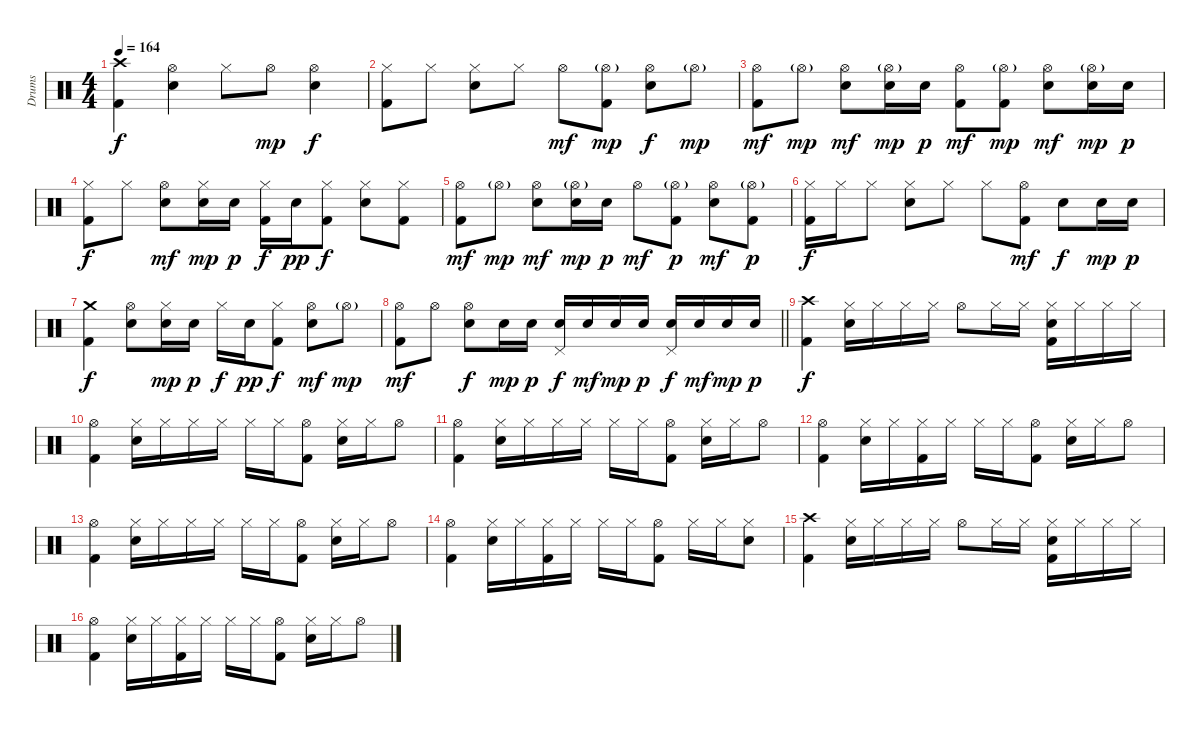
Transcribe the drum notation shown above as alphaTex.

\track ("Drums" "Drums") {instrument percussion}
\staff {score}
\articulation defaults
\ts (4 4)
\tempo 164
\clef neutral
\ks c
("Crash high (hit)" "Kick (hit) 2").4{dy f} ("Hi-Hat (open)" "Electric Snare (hit)").4 "Hi-Hat (closed)".8 "Hi-Hat (open)".8{dy mp} ("Hi-Hat (open)" "Electric Snare (hit)").4{dy f} |
("Hi-Hat (closed)" "Kick (hit) 2").8 "Hi-Hat (closed)".8 ("Hi-Hat (closed)" "Electric Snare (hit)").8 "Hi-Hat (closed)".8 "Hi-Hat (open)".8{dy mf} ("Hi-Hat (open)"{g} "Kick (hit) 2").8{dy mp} ("Hi-Hat (open)" "Electric Snare (hit)").8{dy f} "Hi-Hat (open)"{g}.8{dy mp} |
("Hi-Hat (open)" "Kick (hit) 2").8{dy mf} "Hi-Hat (open)"{g}.8{dy mp} ("Hi-Hat (open)" "Electric Snare (hit)").8{dy mf} ("Hi-Hat (open)"{g} "Electric Snare (hit)").16{dy mp} "Electric Snare (hit)".16{dy p} ("Hi-Hat (open)" "Kick (hit) 2").8{dy mf} ("Hi-Hat (open)"{g} "Kick (hit) 2").8{dy mp} ("Hi-Hat (open)" "Electric Snare (hit)").8{dy mf} ("Hi-Hat (open)"{g} "Electric Snare (hit)").16{dy mp} "Electric Snare (hit)".16{dy p} |
("Hi-Hat (closed)" "Kick (hit) 2").8{dy f} "Hi-Hat (closed)".8 ("Hi-Hat (open)" "Electric Snare (hit)").8{dy mf} ("Hi-Hat (closed)" "Electric Snare (hit)").16{dy mp} "Electric Snare (hit)".16{dy p} ("Hi-Hat (closed)" "Kick (hit) 2").16{dy f} "Electric Snare (hit)".16{dy pp} ("Hi-Hat (closed)" "Kick (hit) 2").8{dy f} ("Hi-Hat (closed)" "Electric Snare (hit)").8 ("Hi-Hat (closed)" "Kick (hit) 2").8 |
("Hi-Hat (open)" "Kick (hit) 2").8{dy mf} "Hi-Hat (open)"{g}.8{dy mp} ("Hi-Hat (open)" "Electric Snare (hit)").8{dy mf} ("Hi-Hat (open)"{g} "Electric Snare (hit)").16{dy mp} "Electric Snare (hit)".16{dy p} "Hi-Hat (open)".8{dy mf} ("Hi-Hat (open)"{g} "Kick (hit) 2").8{dy p} ("Hi-Hat (open)" "Electric Snare (hit)").8{dy mf} ("Hi-Hat (open)"{g} "Kick (hit) 2").8{dy p} |
("Hi-Hat (closed)" "Kick (hit) 2").16{dy f} "Hi-Hat (closed)".16 "Hi-Hat (closed)".8 ("Hi-Hat (closed)" "Electric Snare (hit)").8 "Hi-Hat (closed)".8 "Hi-Hat (closed)".8 ("Hi-Hat (open)" "Kick (hit) 2").8{dy mf} "Electric Snare (hit)".8{dy f} "Electric Snare (hit)".16{dy mp} "Electric Snare (hit)".16{dy p} |
("Crash medium (hit)" "Kick (hit) 2").4{dy f} ("Hi-Hat (open)" "Electric Snare (hit)").8 ("Hi-Hat (closed)" "Electric Snare (hit)").16{dy mp} "Electric Snare (hit)".16{dy p} "Hi-Hat (closed)".16{dy f} "Electric Snare (hit)".16{dy pp} ("Hi-Hat (closed)" "Kick (hit) 2").8{dy f} ("Hi-Hat (open)" "Electric Snare (hit)").8{dy mf} "Hi-Hat (open)"{g}.8{dy mp} |
\barLineRight lightlight
("Hi-Hat (open)" "Kick (hit) 2").8{dy mf} "Hi-Hat (open)".8 ("Hi-Hat (open)" "Electric Snare (hit)").8{dy f} "Electric Snare (hit)".16{dy mp} "Electric Snare (hit)".16{dy p} ("Pedal Hi-Hat (hit)" "Electric Snare (hit)").16{dy f} "Electric Snare (hit)".16{dy mf} "Electric Snare (hit)".16{dy mp} "Electric Snare (hit)".16{dy p} ("Pedal Hi-Hat (hit)" "Electric Snare (hit)").16{dy f} "Electric Snare (hit)".16{dy mf} "Electric Snare (hit)".16{dy mp} "Electric Snare (hit)".16{dy p} |
\section ("" "")
("Crash high (hit)" "Kick (hit) 2").4{dy f} ("Hi-Hat (closed)" "Electric Snare (hit)").16 "Hi-Hat (closed)".16 "Hi-Hat (closed)".16 "Hi-Hat (closed)".16 "Hi-Hat (open)".8 "Hi-Hat (closed)".16 "Hi-Hat (closed)".16 ("Hi-Hat (closed)" "Electric Snare (hit)" "Kick (hit) 2").16 "Hi-Hat (closed)".16 "Hi-Hat (closed)".16 "Hi-Hat (closed)".16 |
("Hi-Hat (open)" "Kick (hit) 2").4 ("Hi-Hat (closed)" "Electric Snare (hit)").16 "Hi-Hat (closed)".16 "Hi-Hat (closed)".16 "Hi-Hat (closed)".16 "Hi-Hat (closed)".16 "Hi-Hat (closed)".16 ("Hi-Hat (open)" "Kick (hit) 2").8 ("Hi-Hat (closed)" "Electric Snare (hit)").16 "Hi-Hat (closed)".16 "Hi-Hat (open)".8 |
("Hi-Hat (open)" "Kick (hit) 2").4 ("Hi-Hat (closed)" "Electric Snare (hit)").16 "Hi-Hat (closed)".16 "Hi-Hat (closed)".16 "Hi-Hat (closed)".16 "Hi-Hat (closed)".16 "Hi-Hat (closed)".16 ("Hi-Hat (open)" "Kick (hit) 2").8 ("Hi-Hat (closed)" "Electric Snare (hit)").16 "Hi-Hat (closed)".16 "Hi-Hat (open)".8 |
("Hi-Hat (open)" "Kick (hit) 2").4 ("Hi-Hat (closed)" "Electric Snare (hit)").16 "Hi-Hat (closed)".16 ("Hi-Hat (closed)" "Kick (hit) 2").16 "Hi-Hat (closed)".16 "Hi-Hat (closed)".16 "Hi-Hat (closed)".16 ("Hi-Hat (open)" "Kick (hit) 2").8 ("Hi-Hat (closed)" "Electric Snare (hit)").16 "Hi-Hat (closed)".16 "Hi-Hat (open)".8 |
("Hi-Hat (open)" "Kick (hit) 2").4 ("Hi-Hat (closed)" "Electric Snare (hit)").16 "Hi-Hat (closed)".16 "Hi-Hat (closed)".16 "Hi-Hat (closed)".16 "Hi-Hat (closed)".16 "Hi-Hat (closed)".16 ("Hi-Hat (open)" "Kick (hit) 2").8 ("Hi-Hat (closed)" "Electric Snare (hit)").16 "Hi-Hat (closed)".16 "Hi-Hat (open)".8 |
("Hi-Hat (open)" "Kick (hit) 2").4 ("Hi-Hat (closed)" "Electric Snare (hit)").16 "Hi-Hat (closed)".16 ("Hi-Hat (closed)" "Kick (hit) 2").16 "Hi-Hat (closed)".16 "Hi-Hat (closed)".16 "Hi-Hat (closed)".16 ("Hi-Hat (open)" "Kick (hit) 2").8 "Hi-Hat (closed)".16 "Hi-Hat (closed)".16 ("Hi-Hat (closed)" "Electric Snare (hit)").8 |
("Crash high (hit)" "Kick (hit) 2").4 ("Hi-Hat (closed)" "Electric Snare (hit)").16 "Hi-Hat (closed)".16 "Hi-Hat (closed)".16 "Hi-Hat (closed)".16 "Hi-Hat (open)".8 "Hi-Hat (closed)".16 "Hi-Hat (closed)".16 ("Hi-Hat (closed)" "Electric Snare (hit)" "Kick (hit) 2").16 "Hi-Hat (closed)".16 "Hi-Hat (closed)".16 "Hi-Hat (closed)".16 |
("Hi-Hat (open)" "Kick (hit) 2").4 ("Hi-Hat (closed)" "Electric Snare (hit)").16 "Hi-Hat (closed)".16 ("Hi-Hat (closed)" "Kick (hit) 2").16 "Hi-Hat (closed)".16 "Hi-Hat (closed)".16 "Hi-Hat (closed)".16 ("Hi-Hat (open)" "Kick (hit) 2").8 ("Hi-Hat (closed)" "Electric Snare (hit)").16 "Hi-Hat (closed)".16 "Hi-Hat (open)".8
